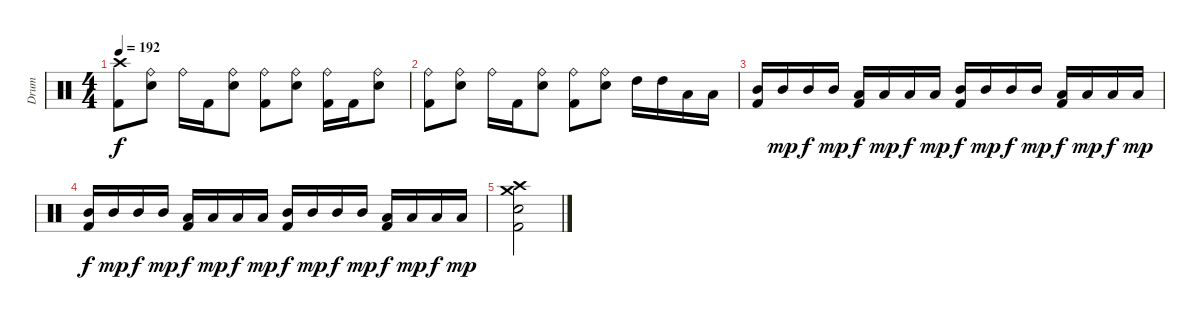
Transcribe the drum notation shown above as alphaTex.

\track ("Drum" "Drum") {instrument percussion}
\staff {score}
\articulation defaults
\ts (4 4)
\tempo 192
\clef neutral
\ks c
("Crash high (hit)" "Kick (hit) 2").8{dy f} ("Ride (bell)" "Snare (hit) 2").8 "Ride (bell)".16 "Kick (hit) 2".16 ("Ride (bell)" "Snare (hit) 2").8 ("Ride (bell)" "Kick (hit) 2").8 ("Ride (bell)" "Snare (hit) 2").8 ("Ride (bell)" "Kick (hit) 2").16 "Kick (hit) 2".16 ("Ride (bell)" "Snare (hit) 2").8 |
("Ride (bell)" "Kick (hit) 2").8 ("Ride (bell)" "Snare (hit) 2").8 "Ride (bell)".16 "Kick (hit) 2".16 ("Ride (bell)" "Snare (hit) 2").8 ("Ride (bell)" "Kick (hit) 2").8 ("Ride (bell)" "Snare (hit) 2").8 "High Tom (hit)".16 "High Tom (hit)".16 "Low Tom (hit)".16 "Low Tom (hit)".16 |
("Mid Tom (hit)" "Kick (hit) 2").16 "Mid Tom (hit)".16{dy mp} "Mid Tom (hit)".16{dy f} "Mid Tom (hit)".16{dy mp} ("Low Tom (hit)" "Kick (hit) 2").16{dy f} "Low Tom (hit)".16{dy mp} "Low Tom (hit)".16{dy f} "Low Tom (hit)".16{dy mp} ("Mid Tom (hit)" "Kick (hit) 2").16{dy f} "Mid Tom (hit)".16{dy mp} "Mid Tom (hit)".16{dy f} "Mid Tom (hit)".16{dy mp} ("Low Tom (hit)" "Kick (hit) 2").16{dy f} "Low Tom (hit)".16{dy mp} "Low Tom (hit)".16{dy f} "Low Tom (hit)".16{dy mp} |
("Mid Tom (hit)" "Kick (hit) 2").16{dy f} "Mid Tom (hit)".16{dy mp} "Mid Tom (hit)".16{dy f} "Mid Tom (hit)".16{dy mp} ("Low Tom (hit)" "Kick (hit) 2").16{dy f} "Low Tom (hit)".16{dy mp} "Low Tom (hit)".16{dy f} "Low Tom (hit)".16{dy mp} ("Mid Tom (hit)" "Kick (hit) 2").16{dy f} "Mid Tom (hit)".16{dy mp} "Mid Tom (hit)".16{dy f} "Mid Tom (hit)".16{dy mp} ("Low Tom (hit)" "Kick (hit) 2").16{dy f} "Low Tom (hit)".16{dy mp} "Low Tom (hit)".16{dy f} "Low Tom (hit)".16{dy mp} |
("Crash medium (hit)" "Crash high (hit)" "Snare (hit) 2" "Kick (hit) 2").2
